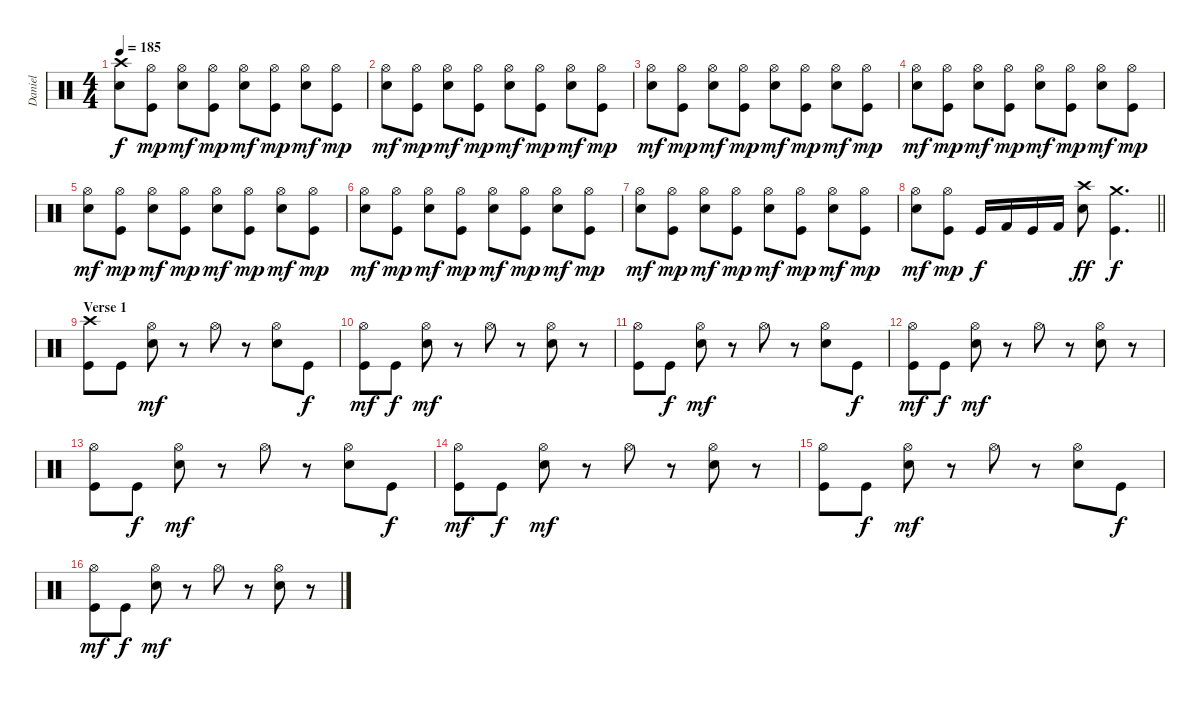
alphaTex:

\track ("Daniel" "Daniel") {instrument percussion}
\staff {score}
\articulation defaults
\ts (4 4)
\tempo 185
\clef neutral
\ks c
("Electric Snare (hit)" "Crash high (hit)").8{dy f} ("Kick (hit)" "Hi-Hat (open)").8{dy mp} ("Electric Snare (hit)" "Hi-Hat (open)").8{dy mf} ("Kick (hit)" "Hi-Hat (open)").8{dy mp} ("Electric Snare (hit)" "Hi-Hat (open)").8{dy mf} ("Kick (hit)" "Hi-Hat (open)").8{dy mp} ("Electric Snare (hit)" "Hi-Hat (open)").8{dy mf} ("Kick (hit)" "Hi-Hat (open)").8{dy mp} |
("Electric Snare (hit)" "Hi-Hat (open)").8{dy mf} ("Kick (hit)" "Hi-Hat (open)").8{dy mp} ("Electric Snare (hit)" "Hi-Hat (open)").8{dy mf} ("Kick (hit)" "Hi-Hat (open)").8{dy mp} ("Electric Snare (hit)" "Hi-Hat (open)").8{dy mf} ("Kick (hit)" "Hi-Hat (open)").8{dy mp} ("Electric Snare (hit)" "Hi-Hat (open)").8{dy mf} ("Kick (hit)" "Hi-Hat (open)").8{dy mp} |
("Electric Snare (hit)" "Hi-Hat (open)").8{dy mf} ("Kick (hit)" "Hi-Hat (open)").8{dy mp} ("Electric Snare (hit)" "Hi-Hat (open)").8{dy mf} ("Kick (hit)" "Hi-Hat (open)").8{dy mp} ("Electric Snare (hit)" "Hi-Hat (open)").8{dy mf} ("Kick (hit)" "Hi-Hat (open)").8{dy mp} ("Electric Snare (hit)" "Hi-Hat (open)").8{dy mf} ("Kick (hit)" "Hi-Hat (open)").8{dy mp} |
("Electric Snare (hit)" "Hi-Hat (open)").8{dy mf} ("Kick (hit)" "Hi-Hat (open)").8{dy mp} ("Electric Snare (hit)" "Hi-Hat (open)").8{dy mf} ("Kick (hit)" "Hi-Hat (open)").8{dy mp} ("Electric Snare (hit)" "Hi-Hat (open)").8{dy mf} ("Kick (hit)" "Hi-Hat (open)").8{dy mp} ("Electric Snare (hit)" "Hi-Hat (open)").8{dy mf} ("Kick (hit)" "Hi-Hat (open)").8{dy mp} |
("Electric Snare (hit)" "Hi-Hat (open)").8{dy mf} ("Kick (hit)" "Hi-Hat (open)").8{dy mp} ("Electric Snare (hit)" "Hi-Hat (open)").8{dy mf} ("Kick (hit)" "Hi-Hat (open)").8{dy mp} ("Electric Snare (hit)" "Hi-Hat (open)").8{dy mf} ("Kick (hit)" "Hi-Hat (open)").8{dy mp} ("Electric Snare (hit)" "Hi-Hat (open)").8{dy mf} ("Kick (hit)" "Hi-Hat (open)").8{dy mp} |
("Electric Snare (hit)" "Hi-Hat (open)").8{dy mf} ("Kick (hit)" "Hi-Hat (open)").8{dy mp} ("Electric Snare (hit)" "Hi-Hat (open)").8{dy mf} ("Kick (hit)" "Hi-Hat (open)").8{dy mp} ("Electric Snare (hit)" "Hi-Hat (open)").8{dy mf} ("Kick (hit)" "Hi-Hat (open)").8{dy mp} ("Electric Snare (hit)" "Hi-Hat (open)").8{dy mf} ("Kick (hit)" "Hi-Hat (open)").8{dy mp} |
("Electric Snare (hit)" "Hi-Hat (open)").8{dy mf} ("Kick (hit)" "Hi-Hat (open)").8{dy mp} ("Electric Snare (hit)" "Hi-Hat (open)").8{dy mf} ("Kick (hit)" "Hi-Hat (open)").8{dy mp} ("Electric Snare (hit)" "Hi-Hat (open)").8{dy mf} ("Kick (hit)" "Hi-Hat (open)").8{dy mp} ("Electric Snare (hit)" "Hi-Hat (open)").8{dy mf} ("Kick (hit)" "Hi-Hat (open)").8{dy mp} |
\barLineRight lightlight
("Electric Snare (hit)" "Hi-Hat (open)").8{dy mf} ("Kick (hit)" "Hi-Hat (open)").8{dy mp} "Kick (hit)".16{dy f} "Kick (hit) 2".16 "Kick (hit)".16 "Kick (hit) 2".16 ("Electric Snare (hit)" "Crash high (hit)").8{dy ff} ("Kick (hit)" "Crash medium (hit)").4{d dy f} |
\section ("" "Verse 1")
("Kick (hit)" "Crash high (hit)").8 "Kick (hit)".8 ("Electric Snare (hit)" "Hi-Hat (open)").8{dy mf} r.8 "Hi-Hat (open)".8 r.8 ("Electric Snare (hit)" "Hi-Hat (open)").8 "Kick (hit)".8{dy f} |
("Kick (hit)" "Hi-Hat (open)").8{dy mf} "Kick (hit)".8{dy f} ("Electric Snare (hit)" "Hi-Hat (open)").8{dy mf} r.8 "Hi-Hat (open)".8 r.8 ("Electric Snare (hit)" "Hi-Hat (open)").8 r.8 |
("Kick (hit)" "Hi-Hat (open)").8 "Kick (hit)".8{dy f} ("Electric Snare (hit)" "Hi-Hat (open)").8{dy mf} r.8 "Hi-Hat (open)".8 r.8 ("Electric Snare (hit)" "Hi-Hat (open)").8 "Kick (hit)".8{dy f} |
("Kick (hit)" "Hi-Hat (open)").8{dy mf} "Kick (hit)".8{dy f} ("Electric Snare (hit)" "Hi-Hat (open)").8{dy mf} r.8 "Hi-Hat (open)".8 r.8 ("Electric Snare (hit)" "Hi-Hat (open)").8 r.8 |
("Kick (hit)" "Hi-Hat (open)").8 "Kick (hit)".8{dy f} ("Electric Snare (hit)" "Hi-Hat (open)").8{dy mf} r.8 "Hi-Hat (open)".8 r.8 ("Electric Snare (hit)" "Hi-Hat (open)").8 "Kick (hit)".8{dy f} |
("Kick (hit)" "Hi-Hat (open)").8{dy mf} "Kick (hit)".8{dy f} ("Electric Snare (hit)" "Hi-Hat (open)").8{dy mf} r.8 "Hi-Hat (open)".8 r.8 ("Electric Snare (hit)" "Hi-Hat (open)").8 r.8 |
("Kick (hit)" "Hi-Hat (open)").8 "Kick (hit)".8{dy f} ("Electric Snare (hit)" "Hi-Hat (open)").8{dy mf} r.8 "Hi-Hat (open)".8 r.8 ("Electric Snare (hit)" "Hi-Hat (open)").8 "Kick (hit)".8{dy f} |
("Kick (hit)" "Hi-Hat (open)").8{dy mf} "Kick (hit)".8{dy f} ("Electric Snare (hit)" "Hi-Hat (open)").8{dy mf} r.8 "Hi-Hat (open)".8 r.8 ("Electric Snare (hit)" "Hi-Hat (open)").8 r.8
